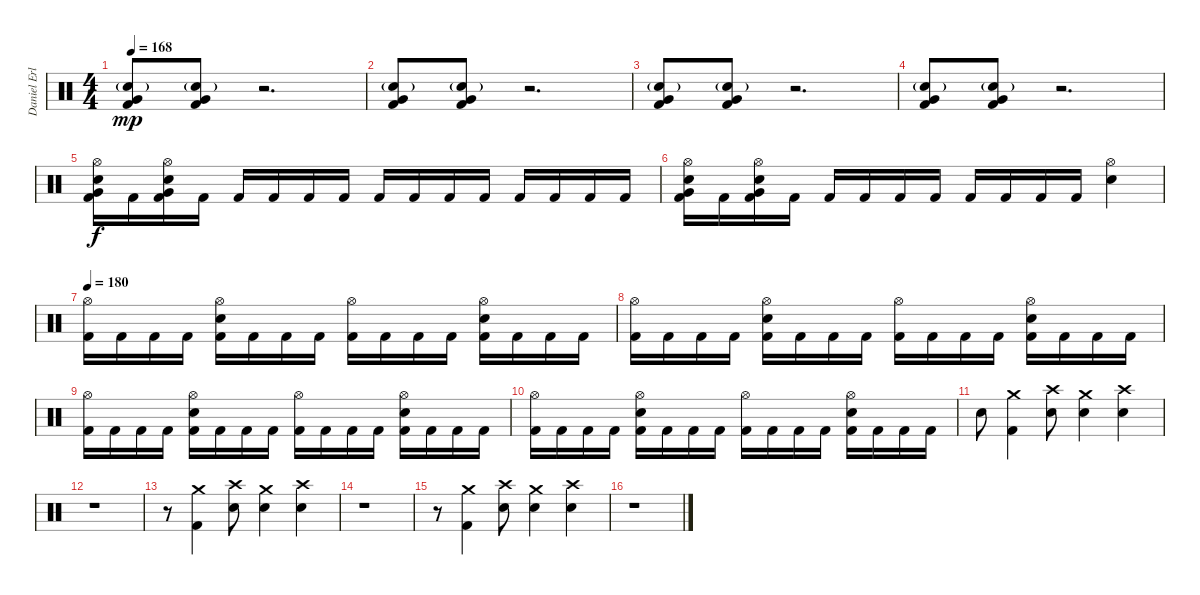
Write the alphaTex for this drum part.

\track ("Daniel Erlandson" "Daniel Erl") {instrument percussion}
\staff {score}
\articulation defaults
\ts (4 4)
\tempo 168
\clef neutral
\ks c
("Electric Snare (hit)"{g} "Very Low Tom (hit)" "Kick (hit) 2").8{dy mp} ("Electric Snare (hit)"{g} "Very Low Tom (hit)" "Kick (hit) 2").8 r.2{d} |
("Electric Snare (hit)"{g} "Very Low Tom (hit)" "Kick (hit) 2").8 ("Electric Snare (hit)"{g} "Very Low Tom (hit)" "Kick (hit) 2").8 r.2{d} |
("Electric Snare (hit)"{g} "Very Low Tom (hit)" "Kick (hit) 2").8 ("Electric Snare (hit)"{g} "Very Low Tom (hit)" "Kick (hit) 2").8 r.2{d} |
("Electric Snare (hit)"{g} "Very Low Tom (hit)" "Kick (hit) 2").8 ("Electric Snare (hit)"{g} "Very Low Tom (hit)" "Kick (hit) 2").8 r.2{d} |
("Hi-Hat (open)" "Very Low Tom (hit)" "Electric Snare (hit)" "Kick (hit) 2").16{dy f} "Kick (hit) 2".16 ("Hi-Hat (open)" "Very Low Tom (hit)" "Electric Snare (hit)" "Kick (hit) 2").16 "Kick (hit) 2".16 "Kick (hit) 2".16 "Kick (hit) 2".16 "Kick (hit) 2".16 "Kick (hit) 2".16 "Kick (hit) 2".16 "Kick (hit) 2".16 "Kick (hit) 2".16 "Kick (hit) 2".16 "Kick (hit) 2".16 "Kick (hit) 2".16 "Kick (hit) 2".16 "Kick (hit) 2".16 |
("Hi-Hat (open)" "Very Low Tom (hit)" "Electric Snare (hit)" "Kick (hit) 2").16 "Kick (hit) 2".16 ("Hi-Hat (open)" "Very Low Tom (hit)" "Electric Snare (hit)" "Kick (hit) 2").16 "Kick (hit) 2".16 "Kick (hit) 2".16 "Kick (hit) 2".16 "Kick (hit) 2".16 "Kick (hit) 2".16 "Kick (hit) 2".16 "Kick (hit) 2".16 "Kick (hit) 2".16 "Kick (hit) 2".16 ("Hi-Hat (open)" "Electric Snare (hit)").4 |
\tempo 180
("Hi-Hat (open)" "Kick (hit) 2").16 "Kick (hit) 2".16 "Kick (hit) 2".16 "Kick (hit) 2".16 ("Hi-Hat (open)" "Electric Snare (hit)" "Kick (hit) 2").16 "Kick (hit) 2".16 "Kick (hit) 2".16 "Kick (hit) 2".16 ("Hi-Hat (open)" "Kick (hit) 2").16 "Kick (hit) 2".16 "Kick (hit) 2".16 "Kick (hit) 2".16 ("Hi-Hat (open)" "Electric Snare (hit)" "Kick (hit) 2").16 "Kick (hit) 2".16 "Kick (hit) 2".16 "Kick (hit) 2".16 |
("Hi-Hat (open)" "Kick (hit) 2").16 "Kick (hit) 2".16 "Kick (hit) 2".16 "Kick (hit) 2".16 ("Hi-Hat (open)" "Electric Snare (hit)" "Kick (hit) 2").16 "Kick (hit) 2".16 "Kick (hit) 2".16 "Kick (hit) 2".16 ("Hi-Hat (open)" "Kick (hit) 2").16 "Kick (hit) 2".16 "Kick (hit) 2".16 "Kick (hit) 2".16 ("Hi-Hat (open)" "Electric Snare (hit)" "Kick (hit) 2").16 "Kick (hit) 2".16 "Kick (hit) 2".16 "Kick (hit) 2".16 |
("Hi-Hat (open)" "Kick (hit) 2").16 "Kick (hit) 2".16 "Kick (hit) 2".16 "Kick (hit) 2".16 ("Hi-Hat (open)" "Electric Snare (hit)" "Kick (hit) 2").16 "Kick (hit) 2".16 "Kick (hit) 2".16 "Kick (hit) 2".16 ("Hi-Hat (open)" "Kick (hit) 2").16 "Kick (hit) 2".16 "Kick (hit) 2".16 "Kick (hit) 2".16 ("Hi-Hat (open)" "Electric Snare (hit)" "Kick (hit) 2").16 "Kick (hit) 2".16 "Kick (hit) 2".16 "Kick (hit) 2".16 |
("Hi-Hat (open)" "Kick (hit) 2").16 "Kick (hit) 2".16 "Kick (hit) 2".16 "Kick (hit) 2".16 ("Hi-Hat (open)" "Electric Snare (hit)" "Kick (hit) 2").16 "Kick (hit) 2".16 "Kick (hit) 2".16 "Kick (hit) 2".16 ("Hi-Hat (open)" "Kick (hit) 2").16 "Kick (hit) 2".16 "Kick (hit) 2".16 "Kick (hit) 2".16 ("Hi-Hat (open)" "Electric Snare (hit)" "Kick (hit) 2").16 "Kick (hit) 2".16 "Kick (hit) 2".16 "Kick (hit) 2".16 |
"Electric Snare (hit)".8 ("Crash medium (hit)" "Kick (hit) 2").4 ("Crash high (hit)" "Electric Snare (hit)").8 ("Crash medium (hit)" "Electric Snare (hit)").4 ("Crash high (hit)" "Electric Snare (hit)").4 |
r.1 |
r.8 ("Crash medium (hit)" "Kick (hit) 2").4 ("Crash high (hit)" "Electric Snare (hit)").8 ("Crash medium (hit)" "Electric Snare (hit)").4 ("Crash high (hit)" "Electric Snare (hit)").4 |
r.1 |
r.8 ("Crash medium (hit)" "Kick (hit) 2").4 ("Crash high (hit)" "Electric Snare (hit)").8 ("Crash medium (hit)" "Electric Snare (hit)").4 ("Crash high (hit)" "Electric Snare (hit)").4 |
r.1
